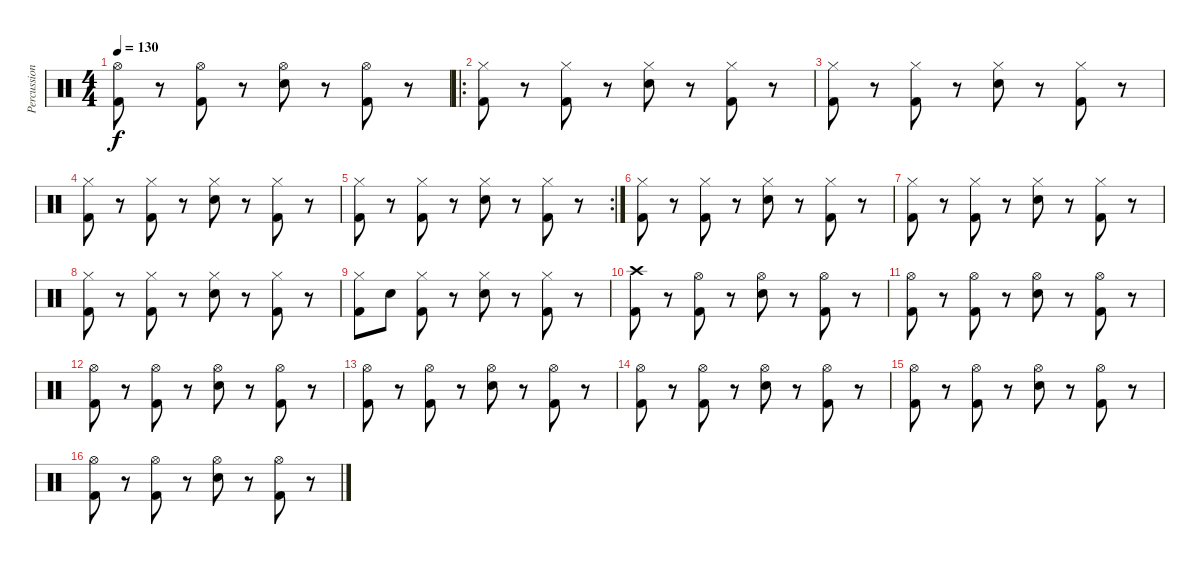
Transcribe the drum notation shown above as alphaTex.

\track ("Percussion" "Percussion") {instrument percussion}
\staff {score}
\articulation defaults
\ts (4 4)
\tempo 130
\clef neutral
\ks c
("Hi-Hat (open)" "Kick (hit) 2").8{dy f} r.8 ("Hi-Hat (open)" "Kick (hit) 2").8 r.8 ("Hi-Hat (open)" "Snare (hit) 2").8 r.8 ("Hi-Hat (open)" "Kick (hit) 2").8 r.8 |
\ro
("Hi-Hat (closed)" "Kick (hit) 2").8 r.8 ("Hi-Hat (closed)" "Kick (hit) 2").8 r.8 ("Hi-Hat (closed)" "Snare (hit) 2").8 r.8 ("Hi-Hat (closed)" "Kick (hit) 2").8 r.8 |
("Hi-Hat (closed)" "Kick (hit) 2").8 r.8 ("Hi-Hat (closed)" "Kick (hit) 2").8 r.8 ("Hi-Hat (closed)" "Snare (hit) 2").8 r.8 ("Hi-Hat (closed)" "Kick (hit) 2").8 r.8 |
("Hi-Hat (closed)" "Kick (hit) 2").8 r.8 ("Hi-Hat (closed)" "Kick (hit) 2").8 r.8 ("Hi-Hat (closed)" "Snare (hit) 2").8 r.8 ("Hi-Hat (closed)" "Kick (hit) 2").8 r.8 |
\rc 2
("Hi-Hat (closed)" "Kick (hit) 2").8 r.8 ("Hi-Hat (closed)" "Kick (hit) 2").8 r.8 ("Hi-Hat (closed)" "Snare (hit) 2").8 r.8 ("Hi-Hat (closed)" "Kick (hit) 2").8 r.8 |
("Hi-Hat (closed)" "Kick (hit) 2").8 r.8 ("Hi-Hat (closed)" "Kick (hit) 2").8 r.8 ("Hi-Hat (closed)" "Snare (hit) 2").8 r.8 ("Hi-Hat (closed)" "Kick (hit) 2").8 r.8 |
("Hi-Hat (closed)" "Kick (hit) 2").8 r.8 ("Hi-Hat (closed)" "Kick (hit) 2").8 r.8 ("Hi-Hat (closed)" "Snare (hit) 2").8 r.8 ("Hi-Hat (closed)" "Kick (hit) 2").8 r.8 |
("Hi-Hat (closed)" "Kick (hit) 2").8 r.8 ("Hi-Hat (closed)" "Kick (hit) 2").8 r.8 ("Hi-Hat (closed)" "Snare (hit) 2").8 r.8 ("Hi-Hat (closed)" "Kick (hit) 2").8 r.8 |
("Hi-Hat (closed)" "Kick (hit) 2").8 "Snare (hit) 2".8 ("Hi-Hat (closed)" "Kick (hit) 2").8 r.8 ("Hi-Hat (closed)" "Snare (hit) 2").8 r.8 ("Hi-Hat (closed)" "Kick (hit) 2").8 r.8 |
("Crash high (hit)" "Kick (hit) 2").8 r.8 ("Hi-Hat (open)" "Kick (hit) 2").8 r.8 ("Hi-Hat (open)" "Snare (hit) 2").8 r.8 ("Hi-Hat (open)" "Kick (hit) 2").8 r.8 |
("Hi-Hat (open)" "Kick (hit) 2").8 r.8 ("Hi-Hat (open)" "Kick (hit) 2").8 r.8 ("Hi-Hat (open)" "Snare (hit) 2").8 r.8 ("Hi-Hat (open)" "Kick (hit) 2").8 r.8 |
("Hi-Hat (open)" "Kick (hit) 2").8 r.8 ("Hi-Hat (open)" "Kick (hit) 2").8 r.8 ("Hi-Hat (open)" "Snare (hit) 2").8 r.8 ("Hi-Hat (open)" "Kick (hit) 2").8 r.8 |
("Hi-Hat (open)" "Kick (hit) 2").8 r.8 ("Hi-Hat (open)" "Kick (hit) 2").8 r.8 ("Hi-Hat (open)" "Snare (hit) 2").8 r.8 ("Hi-Hat (open)" "Kick (hit) 2").8 r.8 |
("Hi-Hat (open)" "Kick (hit) 2").8 r.8 ("Hi-Hat (open)" "Kick (hit) 2").8 r.8 ("Hi-Hat (open)" "Snare (hit) 2").8 r.8 ("Hi-Hat (open)" "Kick (hit) 2").8 r.8 |
("Hi-Hat (open)" "Kick (hit) 2").8 r.8 ("Hi-Hat (open)" "Kick (hit) 2").8 r.8 ("Hi-Hat (open)" "Snare (hit) 2").8 r.8 ("Hi-Hat (open)" "Kick (hit) 2").8 r.8 |
("Hi-Hat (open)" "Kick (hit) 2").8 r.8 ("Hi-Hat (open)" "Kick (hit) 2").8 r.8 ("Hi-Hat (open)" "Snare (hit) 2").8 r.8 ("Hi-Hat (open)" "Kick (hit) 2").8 r.8
